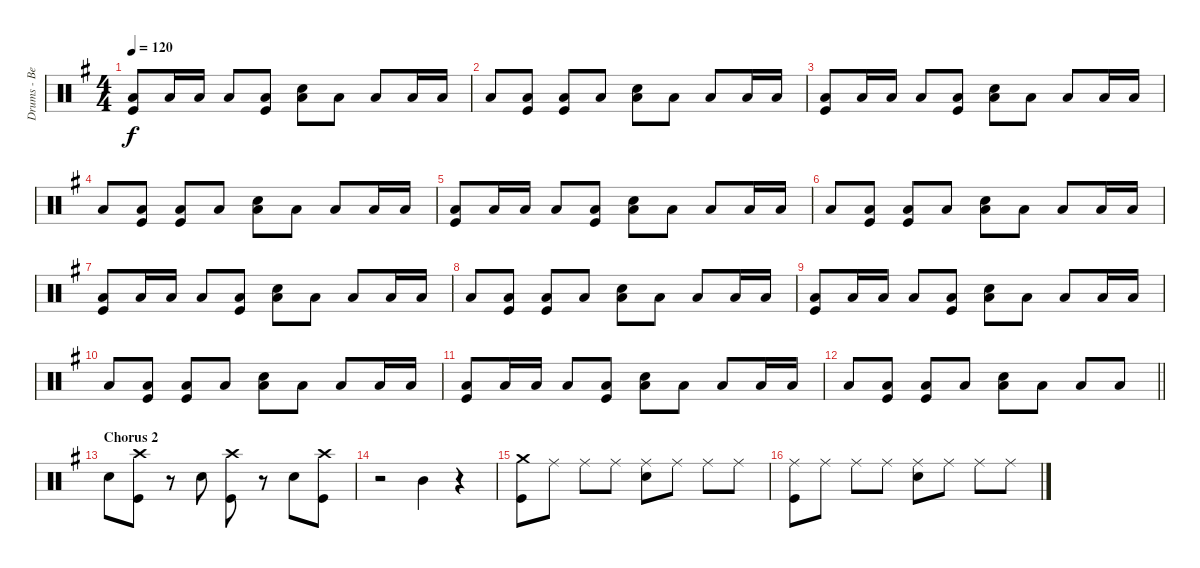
\track ("Drums - Ben Johnston" "Drums - Be") {instrument percussion}
\staff {score}
\articulation defaults
\ts (4 4)
\tempo 120
\clef neutral
\ks eminor
("Low Tom (hit)" "Kick (hit)").8{dy f} "Low Tom (hit)".16 "Low Tom (hit)".16 "Low Tom (hit)".8 ("Low Tom (hit)" "Kick (hit)").8 ("Low Tom (hit)" "Snare (hit) 2").8 "Low Tom (hit)".8 "Low Tom (hit)".8 "Low Tom (hit)".16 "Low Tom (hit)".16 |
"Low Tom (hit)".8 ("Low Tom (hit)" "Kick (hit)").8 ("Low Tom (hit)" "Kick (hit)").8 "Low Tom (hit)".8 ("Low Tom (hit)" "Snare (hit) 2").8 "Low Tom (hit)".8 "Low Tom (hit)".8 "Low Tom (hit)".16 "Low Tom (hit)".16 |
("Low Tom (hit)" "Kick (hit)").8 "Low Tom (hit)".16 "Low Tom (hit)".16 "Low Tom (hit)".8 ("Low Tom (hit)" "Kick (hit)").8 ("Low Tom (hit)" "Snare (hit) 2").8 "Low Tom (hit)".8 "Low Tom (hit)".8 "Low Tom (hit)".16 "Low Tom (hit)".16 |
"Low Tom (hit)".8 ("Low Tom (hit)" "Kick (hit)").8 ("Low Tom (hit)" "Kick (hit)").8 "Low Tom (hit)".8 ("Low Tom (hit)" "Snare (hit) 2").8 "Low Tom (hit)".8 "Low Tom (hit)".8 "Low Tom (hit)".16 "Low Tom (hit)".16 |
("Low Tom (hit)" "Kick (hit)").8 "Low Tom (hit)".16 "Low Tom (hit)".16 "Low Tom (hit)".8 ("Low Tom (hit)" "Kick (hit)").8 ("Low Tom (hit)" "Snare (hit) 2").8 "Low Tom (hit)".8 "Low Tom (hit)".8 "Low Tom (hit)".16 "Low Tom (hit)".16 |
"Low Tom (hit)".8 ("Low Tom (hit)" "Kick (hit)").8 ("Low Tom (hit)" "Kick (hit)").8 "Low Tom (hit)".8 ("Low Tom (hit)" "Snare (hit) 2").8 "Low Tom (hit)".8 "Low Tom (hit)".8 "Low Tom (hit)".16 "Low Tom (hit)".16 |
("Low Tom (hit)" "Kick (hit)").8 "Low Tom (hit)".16 "Low Tom (hit)".16 "Low Tom (hit)".8 ("Low Tom (hit)" "Kick (hit)").8 ("Low Tom (hit)" "Snare (hit) 2").8 "Low Tom (hit)".8 "Low Tom (hit)".8 "Low Tom (hit)".16 "Low Tom (hit)".16 |
"Low Tom (hit)".8 ("Low Tom (hit)" "Kick (hit)").8 ("Low Tom (hit)" "Kick (hit)").8 "Low Tom (hit)".8 ("Low Tom (hit)" "Snare (hit) 2").8 "Low Tom (hit)".8 "Low Tom (hit)".8 "Low Tom (hit)".16 "Low Tom (hit)".16 |
("Low Tom (hit)" "Kick (hit)").8 "Low Tom (hit)".16 "Low Tom (hit)".16 "Low Tom (hit)".8 ("Low Tom (hit)" "Kick (hit)").8 ("Low Tom (hit)" "Snare (hit) 2").8 "Low Tom (hit)".8 "Low Tom (hit)".8 "Low Tom (hit)".16 "Low Tom (hit)".16 |
"Low Tom (hit)".8 ("Low Tom (hit)" "Kick (hit)").8 ("Low Tom (hit)" "Kick (hit)").8 "Low Tom (hit)".8 ("Low Tom (hit)" "Snare (hit) 2").8 "Low Tom (hit)".8 "Low Tom (hit)".8 "Low Tom (hit)".16 "Low Tom (hit)".16 |
("Low Tom (hit)" "Kick (hit)").8 "Low Tom (hit)".16 "Low Tom (hit)".16 "Low Tom (hit)".8 ("Low Tom (hit)" "Kick (hit)").8 ("Low Tom (hit)" "Snare (hit) 2").8 "Low Tom (hit)".8 "Low Tom (hit)".8 "Low Tom (hit)".16 "Low Tom (hit)".16 |
\barLineRight lightlight "Low Tom (hit)".8
("Low Tom (hit)" "Kick (hit)").8 ("Low Tom (hit)" "Kick (hit)").8 "Low Tom (hit)".8 ("Low Tom (hit)" "Snare (hit) 2").8 "Low Tom (hit)".8 "Low Tom (hit)".8 "Low Tom (hit)".8 |
\section ("" "Chorus 2")
"Snare (hit) 2".8 ("Crash high (hit)" "Kick (hit)").8 r.8 "Snare (hit) 2".8 ("Crash high (hit)" "Kick (hit)").8 r.8 "Snare (hit) 2".8 ("Crash high (hit)" "Kick (hit)").8 |
r.2 "Mid Tom (hit)".4 r.4 |
("Crash medium (hit)" "Kick (hit)").8 "Ride (middle)".8 "Ride (middle)".8 "Ride (middle)".8 ("Ride (middle)" "Snare (hit) 2").8 "Ride (middle)".8 "Ride (middle)".8 "Ride (middle)".8 |
("Ride (middle)" "Kick (hit)").8 "Ride (middle)".8 "Ride (middle)".8 "Ride (middle)".8 ("Ride (middle)" "Snare (hit) 2").8 "Ride (middle)".8 "Ride (middle)".8 "Ride (middle)".8
